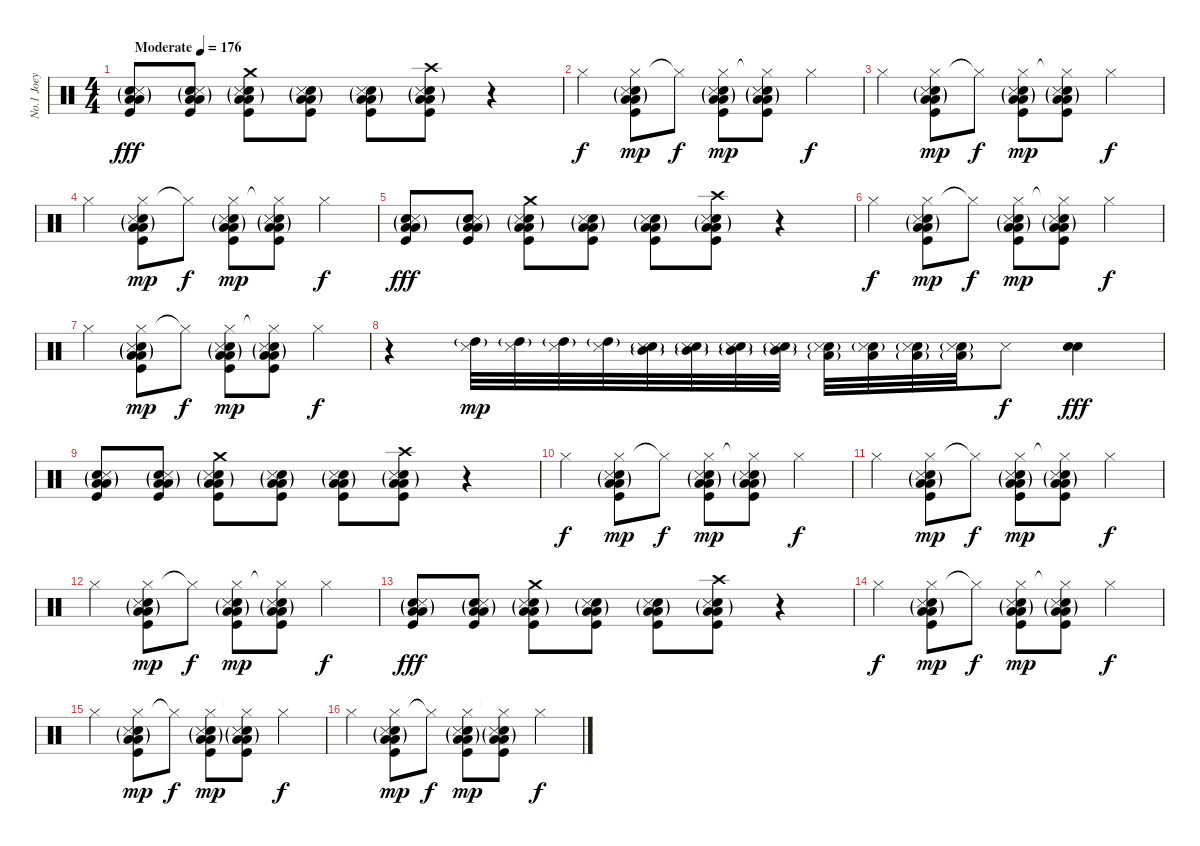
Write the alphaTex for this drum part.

\track ("No.1 Joey" "No.1 Joey") {instrument percussion}
\staff {score}
\articulation defaults
\ts (4 4)
\tempo (176 "Moderate")
\clef neutral
\ks c
("Snare (hit) 2" "Low Tom (hit)"{g} "Low Floor Tom (hit)" "Snare (side stick) 3"{g} "Kick (hit)").8{dy fff} ("Snare (hit) 2" "Low Tom (hit)"{g} "Low Floor Tom (hit)" "Snare (side stick) 3"{g} "Kick (hit)").8 ("Crash medium (hit)" "Snare (hit) 2" "Low Tom (hit)"{g} "Low Floor Tom (hit)" "Snare (side stick) 3"{g} "Kick (hit)").8 ("Snare (hit) 2" "Low Tom (hit)"{g} "Low Floor Tom (hit)" "Snare (side stick) 3"{g} "Kick (hit)").8 ("Snare (hit) 2" "Low Tom (hit)"{g} "Low Floor Tom (hit)" "Snare (side stick) 3"{g} "Kick (hit)").8 ("Crash high (hit)" "Snare (hit) 2" "Low Tom (hit)"{g} "Low Floor Tom (hit)" "Snare (side stick) 3"{g} "Kick (hit)").8 r.4 |
"Hi-Hat (closed)".4{dy f} ("Hi-Hat (closed)" "Snare (hit) 2"{g} "Low Tom (hit)"{g} "Low Floor Tom (hit)" "Snare (side stick) 3"{g} "Kick (hit)").8{dy mp} "Hi-Hat (closed)"{t}.8{dy f} ("Hi-Hat (closed)" "Snare (hit) 2"{g} "Low Tom (hit)"{g} "Low Floor Tom (hit)" "Snare (side stick) 3"{g} "Kick (hit)").8{dy mp} ("Hi-Hat (closed)"{t} "Snare (hit) 2"{g} "Low Tom (hit)"{g} "Low Floor Tom (hit)" "Snare (side stick) 3"{g} "Kick (hit)").8 "Hi-Hat (closed)".4{dy f} |
"Hi-Hat (closed)".4 ("Hi-Hat (closed)" "Snare (hit) 2"{g} "Low Tom (hit)"{g} "Low Floor Tom (hit)" "Snare (side stick) 3"{g} "Kick (hit)").8{dy mp} "Hi-Hat (closed)"{t}.8{dy f} ("Hi-Hat (closed)" "Snare (hit) 2"{g} "Low Tom (hit)"{g} "Low Floor Tom (hit)" "Snare (side stick) 3"{g} "Kick (hit)").8{dy mp} ("Hi-Hat (closed)"{t} "Snare (hit) 2"{g} "Low Tom (hit)"{g} "Low Floor Tom (hit)" "Snare (side stick) 3"{g} "Kick (hit)").8 "Hi-Hat (closed)".4{dy f} |
"Hi-Hat (closed)".4 ("Hi-Hat (closed)" "Snare (hit) 2"{g} "Low Tom (hit)"{g} "Low Floor Tom (hit)" "Snare (side stick) 3"{g} "Kick (hit)").8{dy mp} "Hi-Hat (closed)"{t}.8{dy f} ("Hi-Hat (closed)" "Snare (hit) 2"{g} "Low Tom (hit)"{g} "Low Floor Tom (hit)" "Snare (side stick) 3"{g} "Kick (hit)").8{dy mp} ("Hi-Hat (closed)"{t} "Snare (hit) 2"{g} "Low Tom (hit)"{g} "Low Floor Tom (hit)" "Snare (side stick) 3"{g} "Kick (hit)").8 "Hi-Hat (closed)".4{dy f} |
("Snare (hit) 2" "Low Tom (hit)"{g} "Low Floor Tom (hit)" "Snare (side stick) 3"{g} "Kick (hit)").8{dy fff} ("Snare (hit) 2" "Low Tom (hit)"{g} "Low Floor Tom (hit)" "Snare (side stick) 3"{g} "Kick (hit)").8 ("Crash medium (hit)" "Snare (hit) 2" "Low Tom (hit)"{g} "Low Floor Tom (hit)" "Snare (side stick) 3"{g} "Kick (hit)").8 ("Snare (hit) 2" "Low Tom (hit)"{g} "Low Floor Tom (hit)" "Snare (side stick) 3"{g} "Kick (hit)").8 ("Snare (hit) 2" "Low Tom (hit)"{g} "Low Floor Tom (hit)" "Snare (side stick) 3"{g} "Kick (hit)").8 ("Crash high (hit)" "Snare (hit) 2" "Low Tom (hit)"{g} "Low Floor Tom (hit)" "Snare (side stick) 3"{g} "Kick (hit)").8 r.4 |
"Hi-Hat (closed)".4{dy f} ("Hi-Hat (closed)" "Snare (hit) 2"{g} "Low Tom (hit)"{g} "Low Floor Tom (hit)" "Snare (side stick) 3"{g} "Kick (hit)").8{dy mp} "Hi-Hat (closed)"{t}.8{dy f} ("Hi-Hat (closed)" "Snare (hit) 2"{g} "Low Tom (hit)"{g} "Low Floor Tom (hit)" "Snare (side stick) 3"{g} "Kick (hit)").8{dy mp} ("Hi-Hat (closed)"{t} "Snare (hit) 2"{g} "Low Tom (hit)"{g} "Low Floor Tom (hit)" "Snare (side stick) 3"{g} "Kick (hit)").8 "Hi-Hat (closed)".4{dy f} |
"Hi-Hat (closed)".4 ("Hi-Hat (closed)" "Snare (hit) 2"{g} "Low Tom (hit)"{g} "Low Floor Tom (hit)" "Snare (side stick) 3"{g} "Kick (hit)").8{dy mp} "Hi-Hat (closed)"{t}.8{dy f} ("Hi-Hat (closed)" "Snare (hit) 2"{g} "Low Tom (hit)"{g} "Low Floor Tom (hit)" "Snare (side stick) 3"{g} "Kick (hit)").8{dy mp} ("Hi-Hat (closed)"{t} "Snare (hit) 2"{g} "Low Tom (hit)"{g} "Low Floor Tom (hit)" "Snare (side stick) 3"{g} "Kick (hit)").8 "Hi-Hat (closed)".4{dy f} |
r.4 ("High Tom (hit)"{g} "Snare (side stick) 3").32{dy mp} ("High Tom (hit)"{g} "Snare (side stick) 3").32 ("High Tom (hit)"{g} "Snare (side stick) 3").32 ("High Tom (hit)"{g} "Snare (side stick) 3").32 ("Snare (hit) 2"{g} "Mid Tom (hit)"{g} "Snare (side stick) 3").32 ("Snare (hit) 2"{g} "Mid Tom (hit)"{g} "Snare (side stick) 3").32 ("Snare (hit) 2"{g} "Mid Tom (hit)"{g} "Snare (side stick) 3").32 ("Snare (hit) 2"{g} "Mid Tom (hit)"{g} "Snare (side stick) 3").32 ("Snare (hit) 2"{g} "Low Tom (hit)"{g} "Snare (side stick) 3").32 ("Snare (hit) 2"{g} "Low Tom (hit)" "Snare (side stick) 3").32 ("Snare (hit) 2"{g} "Low Tom (hit)"{g} "Snare (side stick) 3").32 ("Snare (hit) 2"{g} "Low Tom (hit)"{g} "Snare (side stick) 3").32 "Snare (side stick) 3".8{dy f} ("Snare (hit) 2" "Electric Snare (hit)").4{dy fff} |
("Snare (hit) 2" "Low Tom (hit)"{g} "Low Floor Tom (hit)" "Snare (side stick) 3"{g} "Kick (hit)").8 ("Snare (hit) 2" "Low Tom (hit)"{g} "Low Floor Tom (hit)" "Snare (side stick) 3"{g} "Kick (hit)").8 ("Crash medium (hit)" "Snare (hit) 2" "Low Tom (hit)"{g} "Low Floor Tom (hit)" "Snare (side stick) 3"{g} "Kick (hit)").8 ("Snare (hit) 2" "Low Tom (hit)"{g} "Low Floor Tom (hit)" "Snare (side stick) 3"{g} "Kick (hit)").8 ("Snare (hit) 2" "Low Tom (hit)"{g} "Low Floor Tom (hit)" "Snare (side stick) 3"{g} "Kick (hit)").8 ("Crash high (hit)" "Snare (hit) 2" "Low Tom (hit)"{g} "Low Floor Tom (hit)" "Snare (side stick) 3"{g} "Kick (hit)").8 r.4 |
"Hi-Hat (closed)".4{dy f} ("Hi-Hat (closed)" "Snare (hit) 2"{g} "Low Tom (hit)"{g} "Low Floor Tom (hit)" "Snare (side stick) 3"{g} "Kick (hit)").8{dy mp} "Hi-Hat (closed)"{t}.8{dy f} ("Hi-Hat (closed)" "Snare (hit) 2"{g} "Low Tom (hit)"{g} "Low Floor Tom (hit)" "Snare (side stick) 3"{g} "Kick (hit)").8{dy mp} ("Hi-Hat (closed)"{t} "Snare (hit) 2"{g} "Low Tom (hit)"{g} "Low Floor Tom (hit)" "Snare (side stick) 3"{g} "Kick (hit)").8 "Hi-Hat (closed)".4{dy f} |
"Hi-Hat (closed)".4 ("Hi-Hat (closed)" "Snare (hit) 2"{g} "Low Tom (hit)"{g} "Low Floor Tom (hit)" "Snare (side stick) 3"{g} "Kick (hit)").8{dy mp} "Hi-Hat (closed)"{t}.8{dy f} ("Hi-Hat (closed)" "Snare (hit) 2"{g} "Low Tom (hit)"{g} "Low Floor Tom (hit)" "Snare (side stick) 3"{g} "Kick (hit)").8{dy mp} ("Hi-Hat (closed)"{t} "Snare (hit) 2"{g} "Low Tom (hit)"{g} "Low Floor Tom (hit)" "Snare (side stick) 3"{g} "Kick (hit)").8 "Hi-Hat (closed)".4{dy f} |
"Hi-Hat (closed)".4 ("Hi-Hat (closed)" "Snare (hit) 2"{g} "Low Tom (hit)"{g} "Low Floor Tom (hit)" "Snare (side stick) 3"{g} "Kick (hit)").8{dy mp} "Hi-Hat (closed)"{t}.8{dy f} ("Hi-Hat (closed)" "Snare (hit) 2"{g} "Low Tom (hit)"{g} "Low Floor Tom (hit)" "Snare (side stick) 3"{g} "Kick (hit)").8{dy mp} ("Hi-Hat (closed)"{t} "Snare (hit) 2"{g} "Low Tom (hit)"{g} "Low Floor Tom (hit)" "Snare (side stick) 3"{g} "Kick (hit)").8 "Hi-Hat (closed)".4{dy f} |
("Snare (hit) 2" "Low Tom (hit)"{g} "Low Floor Tom (hit)" "Snare (side stick) 3"{g} "Kick (hit)").8{dy fff} ("Snare (hit) 2" "Low Tom (hit)"{g} "Low Floor Tom (hit)" "Snare (side stick) 3"{g} "Kick (hit)").8 ("Crash medium (hit)" "Snare (hit) 2" "Low Tom (hit)"{g} "Low Floor Tom (hit)" "Snare (side stick) 3"{g} "Kick (hit)").8 ("Snare (hit) 2" "Low Tom (hit)"{g} "Low Floor Tom (hit)" "Snare (side stick) 3"{g} "Kick (hit)").8 ("Snare (hit) 2" "Low Tom (hit)"{g} "Low Floor Tom (hit)" "Snare (side stick) 3"{g} "Kick (hit)").8 ("Crash high (hit)" "Snare (hit) 2" "Low Tom (hit)"{g} "Low Floor Tom (hit)" "Snare (side stick) 3"{g} "Kick (hit)").8 r.4 |
"Hi-Hat (closed)".4{dy f} ("Hi-Hat (closed)" "Snare (hit) 2"{g} "Low Tom (hit)"{g} "Low Floor Tom (hit)" "Snare (side stick) 3"{g} "Kick (hit)").8{dy mp} "Hi-Hat (closed)"{t}.8{dy f} ("Hi-Hat (closed)" "Snare (hit) 2"{g} "Low Tom (hit)"{g} "Low Floor Tom (hit)" "Snare (side stick) 3"{g} "Kick (hit)").8{dy mp} ("Hi-Hat (closed)"{t} "Snare (hit) 2"{g} "Low Tom (hit)"{g} "Low Floor Tom (hit)" "Snare (side stick) 3"{g} "Kick (hit)").8 "Hi-Hat (closed)".4{dy f} |
"Hi-Hat (closed)".4 ("Hi-Hat (closed)" "Snare (hit) 2"{g} "Low Tom (hit)"{g} "Low Floor Tom (hit)" "Snare (side stick) 3"{g} "Kick (hit)").8{dy mp} "Hi-Hat (closed)"{t}.8{dy f} ("Hi-Hat (closed)" "Snare (hit) 2"{g} "Low Tom (hit)"{g} "Low Floor Tom (hit)" "Snare (side stick) 3"{g} "Kick (hit)").8{dy mp} ("Hi-Hat (closed)"{t} "Snare (hit) 2"{g} "Low Tom (hit)"{g} "Low Floor Tom (hit)" "Snare (side stick) 3"{g} "Kick (hit)").8 "Hi-Hat (closed)".4{dy f} |
"Hi-Hat (closed)".4 ("Hi-Hat (closed)" "Snare (hit) 2"{g} "Low Tom (hit)"{g} "Low Floor Tom (hit)" "Snare (side stick) 3"{g} "Kick (hit)").8{dy mp} "Hi-Hat (closed)"{t}.8{dy f} ("Hi-Hat (closed)" "Snare (hit) 2"{g} "Low Tom (hit)"{g} "Low Floor Tom (hit)" "Snare (side stick) 3"{g} "Kick (hit)").8{dy mp} ("Hi-Hat (closed)"{t} "Snare (hit) 2"{g} "Low Tom (hit)"{g} "Low Floor Tom (hit)" "Snare (side stick) 3"{g} "Kick (hit)").8 "Hi-Hat (closed)".4{dy f}
